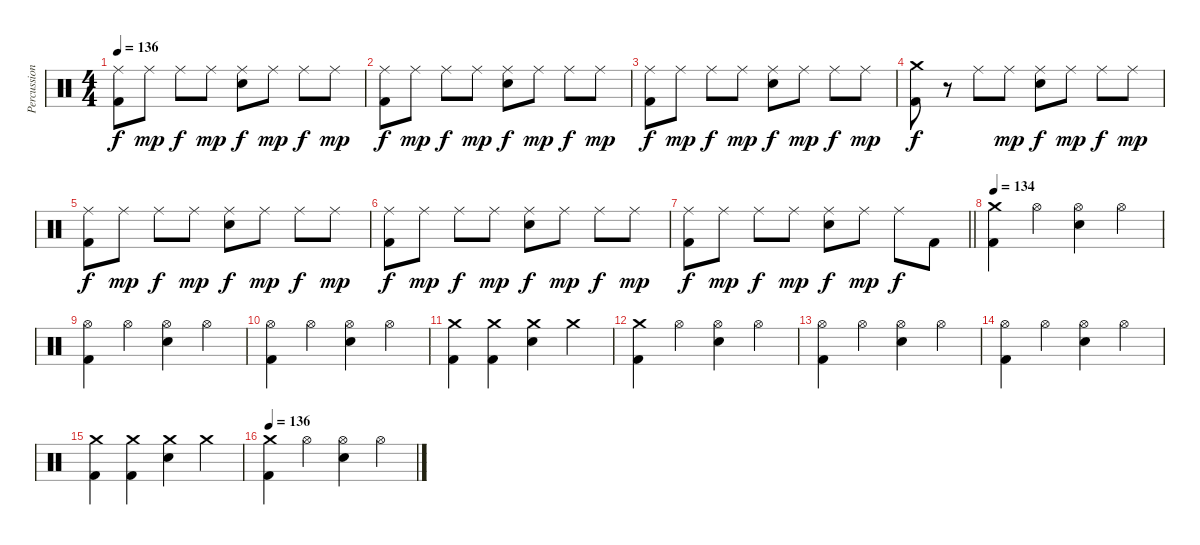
\track ("Percussion" "Percussion") {instrument percussion}
\staff {score}
\articulation defaults
\ts (4 4)
\tempo 136
\clef neutral
\ks c
("Ride (middle)" "Kick (hit) 2").8{dy f} "Ride (middle)".8{dy mp} "Ride (middle)".8{dy f} "Ride (middle)".8{dy mp} ("Ride (middle)" "Electric Snare (hit)").8{dy f} "Ride (middle)".8{dy mp} "Ride (middle)".8{dy f} "Ride (middle)".8{dy mp} |
("Ride (middle)" "Kick (hit) 2").8{dy f} "Ride (middle)".8{dy mp} "Ride (middle)".8{dy f} "Ride (middle)".8{dy mp} ("Ride (middle)" "Electric Snare (hit)").8{dy f} "Ride (middle)".8{dy mp} "Ride (middle)".8{dy f} "Ride (middle)".8{dy mp} |
("Ride (middle)" "Kick (hit) 2").8{dy f} "Ride (middle)".8{dy mp} "Ride (middle)".8{dy f} "Ride (middle)".8{dy mp} ("Ride (middle)" "Electric Snare (hit)").8{dy f} "Ride (middle)".8{dy mp} "Ride (middle)".8{dy f} "Ride (middle)".8{dy mp} |
("Crash medium (hit)" "Kick (hit) 2").8{dy f} r.8 "Ride (middle)".8 "Ride (middle)".8{dy mp} ("Ride (middle)" "Electric Snare (hit)").8{dy f} "Ride (middle)".8{dy mp} "Ride (middle)".8{dy f} "Ride (middle)".8{dy mp} |
("Ride (middle)" "Kick (hit) 2").8{dy f} "Ride (middle)".8{dy mp} "Ride (middle)".8{dy f} "Ride (middle)".8{dy mp} ("Ride (middle)" "Electric Snare (hit)").8{dy f} "Ride (middle)".8{dy mp} "Ride (middle)".8{dy f} "Ride (middle)".8{dy mp} |
("Ride (middle)" "Kick (hit) 2").8{dy f} "Ride (middle)".8{dy mp} "Ride (middle)".8{dy f} "Ride (middle)".8{dy mp} ("Ride (middle)" "Electric Snare (hit)").8{dy f} "Ride (middle)".8{dy mp} "Ride (middle)".8{dy f} "Ride (middle)".8{dy mp} |
\barLineRight lightlight
("Ride (middle)" "Kick (hit) 2").8{dy f} "Ride (middle)".8{dy mp} "Ride (middle)".8{dy f} "Ride (middle)".8{dy mp} ("Ride (middle)" "Electric Snare (hit)").8{dy f} "Ride (middle)".8{dy mp} "Ride (middle)".8{dy f} "Kick (hit) 2".8 |
\section ("" "")
\tempo 134
("Crash medium (hit)" "Kick (hit) 2").4 "Hi-Hat (open)".4 ("Hi-Hat (open)" "Electric Snare (hit)").4 "Hi-Hat (open)".4 |
("Hi-Hat (open)" "Kick (hit) 2").4 "Hi-Hat (open)".4 ("Hi-Hat (open)" "Electric Snare (hit)").4 "Hi-Hat (open)".4 |
("Hi-Hat (open)" "Kick (hit) 2").4 "Hi-Hat (open)".4 ("Hi-Hat (open)" "Electric Snare (hit)").4 "Hi-Hat (open)".4 |
("Crash medium (hit)" "Kick (hit) 2").4 ("Crash medium (hit)" "Kick (hit) 2").4 ("Crash medium (hit)" "Electric Snare (hit)").4 "Crash medium (hit)".4 |
("Crash medium (hit)" "Kick (hit) 2").4 "Hi-Hat (open)".4 ("Hi-Hat (open)" "Electric Snare (hit)").4 "Hi-Hat (open)".4 |
("Hi-Hat (open)" "Kick (hit) 2").4 "Hi-Hat (open)".4 ("Hi-Hat (open)" "Electric Snare (hit)").4 "Hi-Hat (open)".4 |
("Hi-Hat (open)" "Kick (hit) 2").4 "Hi-Hat (open)".4 ("Hi-Hat (open)" "Electric Snare (hit)").4 "Hi-Hat (open)".4 |
("Crash medium (hit)" "Kick (hit) 2").4 ("Crash medium (hit)" "Kick (hit) 2").4 ("Crash medium (hit)" "Electric Snare (hit)").4 "Crash medium (hit)".4 |
\tempo 136
("Crash medium (hit)" "Kick (hit) 2").4 "Hi-Hat (open)".4 ("Hi-Hat (open)" "Electric Snare (hit)").4 "Hi-Hat (open)".4
